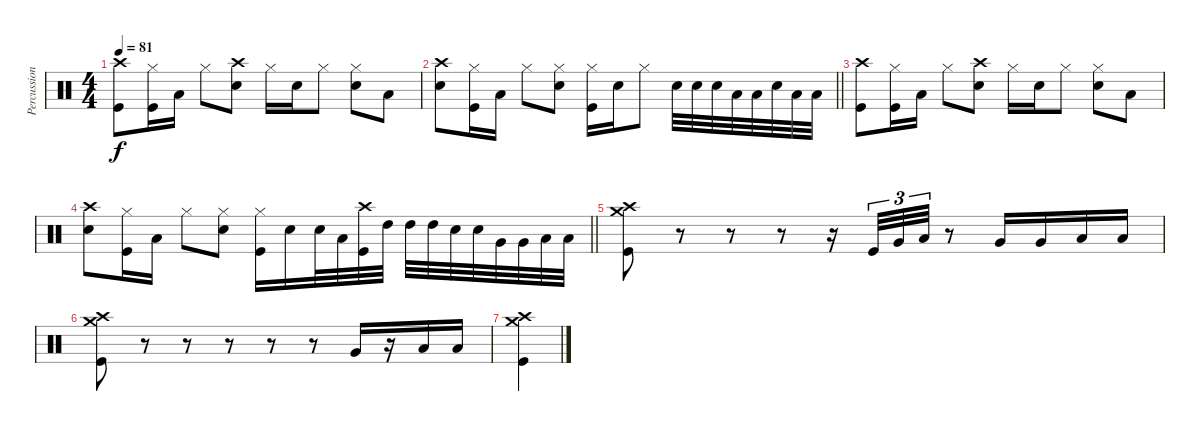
\track ("Percussion" "Percussion") {instrument percussion}
\staff {score}
\articulation defaults
\ts (4 4)
\tempo 81
\clef neutral
\ks c
("Crash high (hit)" "Kick (hit)").8{dy f} ("Hi-Hat (closed)" "Kick (hit)").16 "Low Tom (hit)".16 "Hi-Hat (closed)".8 ("Crash high (hit)" "Snare (hit) 2").8 "Hi-Hat (closed)".16 "Snare (hit) 2".16 "Hi-Hat (closed)".8 ("Hi-Hat (closed)" "Snare (hit) 2").8 "Low Tom (hit)".8 |
\barLineRight lightlight
("Crash high (hit)" "Snare (hit) 2").8 ("Hi-Hat (closed)" "Kick (hit)").16 "Low Tom (hit)".16 "Hi-Hat (closed)".8 ("Hi-Hat (closed)" "Snare (hit) 2").8 ("Hi-Hat (closed)" "Kick (hit)").16 "Snare (hit) 2".16 "Hi-Hat (closed)".8 "Snare (hit) 2".32 "Snare (hit) 2".32 "Snare (hit) 2".32 "Low Tom (hit)".32 "Low Tom (hit)".32 "Snare (hit) 2".32 "Low Floor Tom (hit)".32 "Low Floor Tom (hit)".32 |
("Crash high (hit)" "Kick (hit)").8 ("Hi-Hat (closed)" "Kick (hit)").16 "Low Tom (hit)".16 "Hi-Hat (closed)".8 ("Crash high (hit)" "Snare (hit) 2").8 "Hi-Hat (closed)".16 "Snare (hit) 2".16 "Hi-Hat (closed)".8 ("Hi-Hat (closed)" "Snare (hit) 2").8 "Low Tom (hit)".8 |
\barLineRight lightlight
("Crash high (hit)" "Snare (hit) 2").8 ("Hi-Hat (closed)" "Kick (hit)").16 "Low Tom (hit)".16 "Hi-Hat (closed)".8 ("Hi-Hat (closed)" "Snare (hit) 2").8 ("Hi-Hat (closed)" "Kick (hit)").16 "Snare (hit) 2".16 "Snare (hit) 2".32 "Low Tom (hit)".32 ("Crash high (hit)" "Kick (hit)").32 "High Tom (hit)".32 "High Tom (hit)".32 "High Tom (hit)".32 "Snare (hit) 2".32 "Snare (hit) 2".32 "Very Low Tom (hit)".32 "Very Low Tom (hit)".32 "Low Floor Tom (hit)".32 "Low Floor Tom (hit)".32 |
("Crash medium (hit)" "Crash high (hit)" "Kick (hit)").8 r.8 r.8 r.8 r.16 "Kick (hit)".32{tu (3 2)} "Very Low Tom (hit)".32{tu (3 2)} "Low Floor Tom (hit)".32{tu (3 2)} r.8 "Very Low Tom (hit)".16 "Very Low Tom (hit)".16 "Low Floor Tom (hit)".16 "Low Floor Tom (hit)".16 |
("Crash medium (hit)" "Crash high (hit)" "Kick (hit)").8 r.8 r.8 r.8 r.8 r.8 "Very Low Tom (hit)".16 r.16 "Low Floor Tom (hit)".16 "Low Floor Tom (hit)".16 |
("Crash medium (hit)" "Crash high (hit)" "Kick (hit)").4
